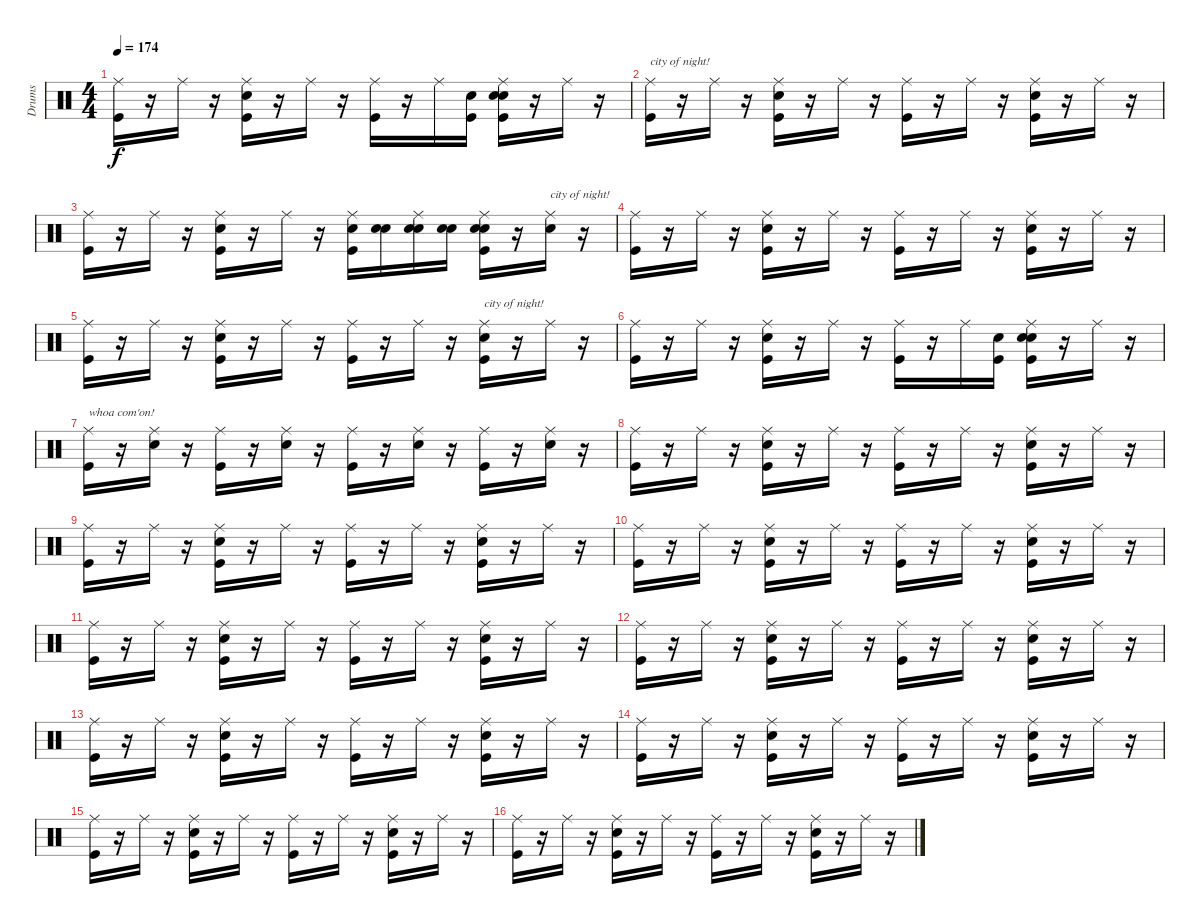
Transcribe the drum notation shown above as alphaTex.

\track ("Drums" "Drums") {instrument percussion}
\staff {score}
\articulation defaults
\ts (4 4)
\tempo 174
\clef neutral
\ks c
("Kick (hit)" "Ride (middle)").16{dy f} r.16 "Ride (middle)".16 r.16 ("Kick (hit)" "Snare (hit) 2" "Ride (middle)").16 r.16 "Ride (middle)".16 r.16 ("Kick (hit)" "Ride (middle)").16 r.16 "Ride (middle)".16 ("Snare (hit)" "Kick (hit)").16 ("Snare (hit)" "Kick (hit)" "Snare (hit) 2" "Ride (middle)").16 r.16 "Ride (middle)".16 r.16 |
("Kick (hit)" "Ride (middle)").16{txt "city of night!"} r.16 "Ride (middle)".16 r.16 ("Kick (hit)" "Snare (hit) 2" "Ride (middle)").16 r.16 "Ride (middle)".16 r.16 ("Kick (hit)" "Ride (middle)").16 r.16 "Ride (middle)".16 r.16 ("Kick (hit)" "Snare (hit) 2" "Ride (middle)").16 r.16 "Ride (middle)".16 r.16 |
("Kick (hit)" "Ride (middle)").16 r.16 "Ride (middle)".16 r.16 ("Kick (hit)" "Snare (hit) 2" "Ride (middle)").16 r.16 "Ride (middle)".16 r.16 ("Snare (hit) 2" "Kick (hit)" "Ride (middle)").16 ("Snare (hit)" "Snare (hit) 2").16 ("Snare (hit)" "Snare (hit) 2" "Ride (middle)").16 ("Snare (hit)" "Snare (hit) 2").16 ("Snare (hit)" "Snare (hit) 2" "Kick (hit)" "Ride (middle)").16 r.16 ("Ride (middle)" "Snare (hit) 2").16{txt "city of night!"} r.16 |
("Kick (hit)" "Ride (middle)").16 r.16 "Ride (middle)".16 r.16 ("Snare (hit) 2" "Kick (hit)" "Ride (middle)").16 r.16 "Ride (middle)".16 r.16 ("Kick (hit)" "Ride (middle)").16 r.16 "Ride (middle)".16 r.16 ("Snare (hit) 2" "Kick (hit)" "Ride (middle)").16 r.16 "Ride (middle)".16 r.16 |
("Kick (hit)" "Ride (middle)").16 r.16 "Ride (middle)".16 r.16 ("Kick (hit)" "Snare (hit) 2" "Ride (middle)").16 r.16 "Ride (middle)".16 r.16 ("Kick (hit)" "Ride (middle)").16 r.16 "Ride (middle)".16 r.16 ("Kick (hit)" "Snare (hit) 2" "Ride (middle)").16{txt "city of night!"} r.16 "Ride (middle)".16 r.16 |
("Kick (hit)" "Ride (middle)").16 r.16 "Ride (middle)".16 r.16 ("Kick (hit)" "Snare (hit) 2" "Ride (middle)").16 r.16 "Ride (middle)".16 r.16 ("Kick (hit)" "Ride (middle)").16 r.16 "Ride (middle)".16 ("Snare (hit)" "Kick (hit)").16 ("Snare (hit)" "Kick (hit)" "Snare (hit) 2" "Ride (middle)").16 r.16 "Ride (middle)".16 r.16 |
("Kick (hit)" "Ride (middle)").16{txt "whoa com'on!"} r.16 ("Snare (hit) 2" "Ride (middle)").16 r.16 ("Kick (hit)" "Ride (middle)").16 r.16 ("Snare (hit) 2" "Ride (middle)").16 r.16 ("Kick (hit)" "Ride (middle)").16 r.16 ("Snare (hit) 2" "Ride (middle)").16 r.16 ("Kick (hit)" "Ride (middle)").16 r.16 ("Snare (hit) 2" "Ride (middle)").16 r.16 |
("Kick (hit)" "Ride (middle)").16 r.16 "Ride (middle)".16 r.16 ("Kick (hit)" "Snare (hit) 2" "Ride (middle)").16 r.16 "Ride (middle)".16 r.16 ("Kick (hit)" "Ride (middle)").16 r.16 "Ride (middle)".16 r.16 ("Kick (hit)" "Snare (hit) 2" "Ride (middle)").16 r.16 "Ride (middle)".16 r.16 |
("Kick (hit)" "Ride (middle)").16 r.16 "Ride (middle)".16 r.16 ("Kick (hit)" "Snare (hit) 2" "Ride (middle)").16 r.16 "Ride (middle)".16 r.16 ("Kick (hit)" "Ride (middle)").16 r.16 "Ride (middle)".16 r.16 ("Kick (hit)" "Snare (hit) 2" "Ride (middle)").16 r.16 "Ride (middle)".16 r.16 |
("Kick (hit)" "Ride (middle)").16 r.16 "Ride (middle)".16 r.16 ("Kick (hit)" "Snare (hit) 2" "Ride (middle)").16 r.16 "Ride (middle)".16 r.16 ("Kick (hit)" "Ride (middle)").16 r.16 "Ride (middle)".16 r.16 ("Kick (hit)" "Snare (hit) 2" "Ride (middle)").16 r.16 "Ride (middle)".16 r.16 |
("Kick (hit)" "Ride (middle)").16 r.16 "Ride (middle)".16 r.16 ("Kick (hit)" "Snare (hit) 2" "Ride (middle)").16 r.16 "Ride (middle)".16 r.16 ("Kick (hit)" "Ride (middle)").16 r.16 "Ride (middle)".16 r.16 ("Kick (hit)" "Snare (hit) 2" "Ride (middle)").16 r.16 "Ride (middle)".16 r.16 |
("Kick (hit)" "Ride (middle)").16 r.16 "Ride (middle)".16 r.16 ("Kick (hit)" "Snare (hit) 2" "Ride (middle)").16 r.16 "Ride (middle)".16 r.16 ("Kick (hit)" "Ride (middle)").16 r.16 "Ride (middle)".16 r.16 ("Kick (hit)" "Snare (hit) 2" "Ride (middle)").16 r.16 "Ride (middle)".16 r.16 |
("Kick (hit)" "Ride (middle)").16 r.16 "Ride (middle)".16 r.16 ("Kick (hit)" "Snare (hit) 2" "Ride (middle)").16 r.16 "Ride (middle)".16 r.16 ("Kick (hit)" "Ride (middle)").16 r.16 "Ride (middle)".16 r.16 ("Kick (hit)" "Snare (hit) 2" "Ride (middle)").16 r.16 "Ride (middle)".16 r.16 |
("Kick (hit)" "Ride (middle)").16 r.16 "Ride (middle)".16 r.16 ("Kick (hit)" "Snare (hit) 2" "Ride (middle)").16 r.16 "Ride (middle)".16 r.16 ("Kick (hit)" "Ride (middle)").16 r.16 "Ride (middle)".16 r.16 ("Kick (hit)" "Snare (hit) 2" "Ride (middle)").16 r.16 "Ride (middle)".16 r.16 |
("Kick (hit)" "Ride (middle)").16 r.16 "Ride (middle)".16 r.16 ("Kick (hit)" "Snare (hit) 2" "Ride (middle)").16 r.16 "Ride (middle)".16 r.16 ("Kick (hit)" "Ride (middle)").16 r.16 "Ride (middle)".16 r.16 ("Kick (hit)" "Snare (hit) 2" "Ride (middle)").16 r.16 "Ride (middle)".16 r.16 |
("Kick (hit)" "Ride (middle)").16 r.16 "Ride (middle)".16 r.16 ("Kick (hit)" "Snare (hit) 2" "Ride (middle)").16 r.16 "Ride (middle)".16 r.16 ("Kick (hit)" "Ride (middle)").16 r.16 "Ride (middle)".16 r.16 ("Kick (hit)" "Snare (hit) 2" "Ride (middle)").16 r.16 "Ride (middle)".16 r.16
